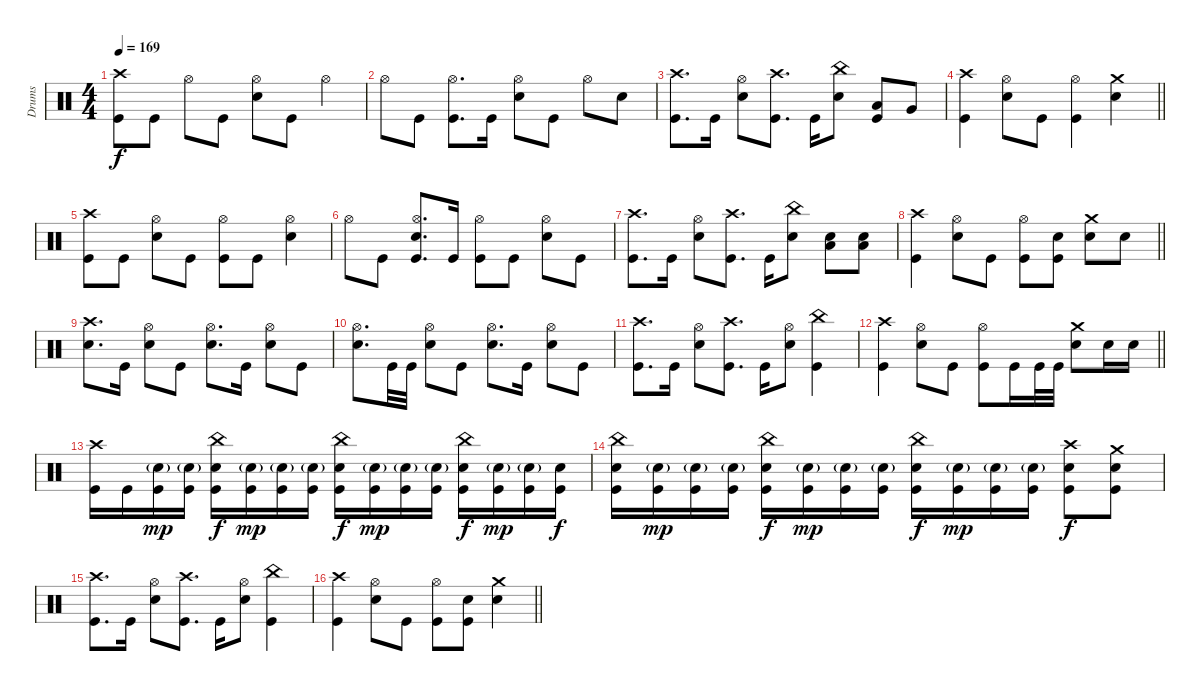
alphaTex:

\track ("Drums" "Drums") {instrument percussion}
\staff
\articulation defaults
\ts (4 4)
\section ("" "")
\tempo 169
\clef neutral
\ks c
("Crash high (hit)" "Kick (hit)").8{dy f} "Kick (hit)".8 "Hi-Hat (open)".8 "Kick (hit)".8 ("Hi-Hat (open)" "Electric Snare (hit)").8 "Kick (hit)".8 "Hi-Hat (open)".4 |
"Hi-Hat (open)".8 "Kick (hit)".8 ("Hi-Hat (open)" "Kick (hit)").8{d} "Kick (hit)".16 ("Hi-Hat (open)" "Electric Snare (hit)").8 "Kick (hit)".8 "Hi-Hat (open)".8 "Electric Snare (hit)".8 |
("Crash high (hit)" "Kick (hit)").8{d} "Kick (hit)".16 ("Hi-Hat (open)" "Electric Snare (hit)").8 ("Crash high (hit)" "Kick (hit)").8{d} "Kick (hit)".16 ("China (hit)" "Electric Snare (hit)").8 ("Low Tom (hit)" "Kick (hit)").8 "Very Low Tom (hit)".8 |
\barLineRight lightlight
("Crash high (hit)" "Kick (hit)").4 ("Hi-Hat (open)" "Electric Snare (hit)").8 "Kick (hit)".8 ("Hi-Hat (open)" "Kick (hit)").4 ("Crash medium (hit)" "Electric Snare (hit)").4 |
("Crash high (hit)" "Kick (hit)").8 "Kick (hit)".8 ("Hi-Hat (open)" "Electric Snare (hit)").8 "Kick (hit)".8 ("Hi-Hat (open)" "Kick (hit)").8 "Kick (hit)".8 ("Hi-Hat (open)" "Electric Snare (hit)").4 |
"Hi-Hat (open)".8 "Kick (hit)".8 ("Hi-Hat (open)" "Electric Snare (hit)" "Kick (hit)").8{d} "Kick (hit)".16 ("Hi-Hat (open)" "Kick (hit)").8 "Kick (hit)".8 ("Hi-Hat (open)" "Electric Snare (hit)").8 "Kick (hit)".8 |
("Crash high (hit)" "Kick (hit)").8{d} "Kick (hit)".16 ("Hi-Hat (open)" "Electric Snare (hit)").8 ("Crash high (hit)" "Kick (hit)").8{d} "Kick (hit)".16 ("China (hit)" "Electric Snare (hit)").8 ("Low Floor Tom (hit)" "Electric Snare (hit)").8 ("Low Floor Tom (hit)" "Electric Snare (hit)").8 |
\barLineRight lightlight
("Crash high (hit)" "Kick (hit)").4 ("Hi-Hat (open)" "Electric Snare (hit)").8 "Kick (hit)".8 ("Hi-Hat (open)" "Kick (hit)").8 ("Electric Snare (hit)" "Kick (hit)").8 ("Crash medium (hit)" "Electric Snare (hit)").8 "Electric Snare (hit)".8 |
("Crash high (hit)" "Electric Snare (hit)").8{d} "Kick (hit)".16 ("Hi-Hat (open)" "Electric Snare (hit)").8 "Kick (hit)".8 ("Hi-Hat (open)" "Electric Snare (hit)").8{d} "Kick (hit)".16 ("Hi-Hat (open)" "Electric Snare (hit)").8 "Kick (hit)".8 |
("Hi-Hat (open)" "Electric Snare (hit)").8{d} "Kick (hit)".32 "Kick (hit)".32 ("Hi-Hat (open)" "Electric Snare (hit)").8 "Kick (hit)".8 ("Hi-Hat (open)" "Electric Snare (hit)").8{d} "Kick (hit)".16 ("Hi-Hat (open)" "Electric Snare (hit)").8 "Kick (hit)".8 |
("Crash high (hit)" "Kick (hit)").8{d} "Kick (hit)".16 ("Hi-Hat (open)" "Electric Snare (hit)").8 ("Crash high (hit)" "Kick (hit)").8{d} "Kick (hit)".16 ("Hi-Hat (open)" "Electric Snare (hit)").8 ("China (hit)" "Kick (hit)").4 |
\barLineRight lightlight
("Crash high (hit)" "Kick (hit)").4 ("Hi-Hat (open)" "Electric Snare (hit)").8 "Kick (hit)".8 ("Hi-Hat (open)" "Kick (hit)").8 "Kick (hit)".16 "Kick (hit)".32 "Kick (hit)".32 ("Crash medium (hit)" "Electric Snare (hit)").8 "Electric Snare (hit)".16 "Electric Snare (hit)".16 |
("Crash high (hit)" "Kick (hit)").16 "Kick (hit)".16 ("Electric Snare (hit)"{g} "Kick (hit)").16{dy mp} ("Electric Snare (hit)"{g} "Kick (hit)").16 ("China (hit)" "Electric Snare (hit)" "Kick (hit)").16{dy f} ("Electric Snare (hit)"{g} "Kick (hit)").16{dy mp} ("Electric Snare (hit)"{g} "Kick (hit)").16 ("Electric Snare (hit)"{g} "Kick (hit)").16 ("China (hit)" "Electric Snare (hit)" "Kick (hit)").16{dy f} ("Electric Snare (hit)"{g} "Kick (hit)").16{dy mp} ("Electric Snare (hit)"{g} "Kick (hit)").16 ("Electric Snare (hit)"{g} "Kick (hit)").16 ("China (hit)" "Electric Snare (hit)" "Kick (hit)").16{dy f} ("Electric Snare (hit)"{g} "Kick (hit)").16{dy mp} ("Electric Snare (hit)"{g} "Kick (hit)").16 ("Electric Snare (hit)" "Kick (hit)").16{dy f} |
("China (hit)" "Electric Snare (hit)" "Kick (hit)").16 ("Electric Snare (hit)"{g} "Kick (hit)").16{dy mp} ("Electric Snare (hit)"{g} "Kick (hit)").16 ("Electric Snare (hit)"{g} "Kick (hit)").16 ("China (hit)" "Electric Snare (hit)" "Kick (hit)").16{dy f} ("Electric Snare (hit)"{g} "Kick (hit)").16{dy mp} ("Electric Snare (hit)"{g} "Kick (hit)").16 ("Electric Snare (hit)"{g} "Kick (hit)").16 ("China (hit)" "Electric Snare (hit)" "Kick (hit)").16{dy f} ("Electric Snare (hit)"{g} "Kick (hit)").16{dy mp} ("Electric Snare (hit)"{g} "Kick (hit)").16 ("Electric Snare (hit)"{g} "Kick (hit)").16 ("Crash high (hit)" "Electric Snare (hit)" "Kick (hit)").8{dy f} ("Crash medium (hit)" "Electric Snare (hit)" "Kick (hit)").8 |
("Crash high (hit)" "Kick (hit)").8{d} "Kick (hit)".16 ("Hi-Hat (open)" "Electric Snare (hit)").8 ("Crash high (hit)" "Kick (hit)").8{d} "Kick (hit)".16 ("Hi-Hat (open)" "Electric Snare (hit)").8 ("China (hit)" "Kick (hit)").4 |
\barLineRight lightlight
("Crash high (hit)" "Kick (hit)").4 ("Hi-Hat (open)" "Electric Snare (hit)").8 "Kick (hit)".8 ("Hi-Hat (open)" "Kick (hit)").8 ("Electric Snare (hit)" "Kick (hit)").8 ("Crash medium (hit)" "Electric Snare (hit)").4
